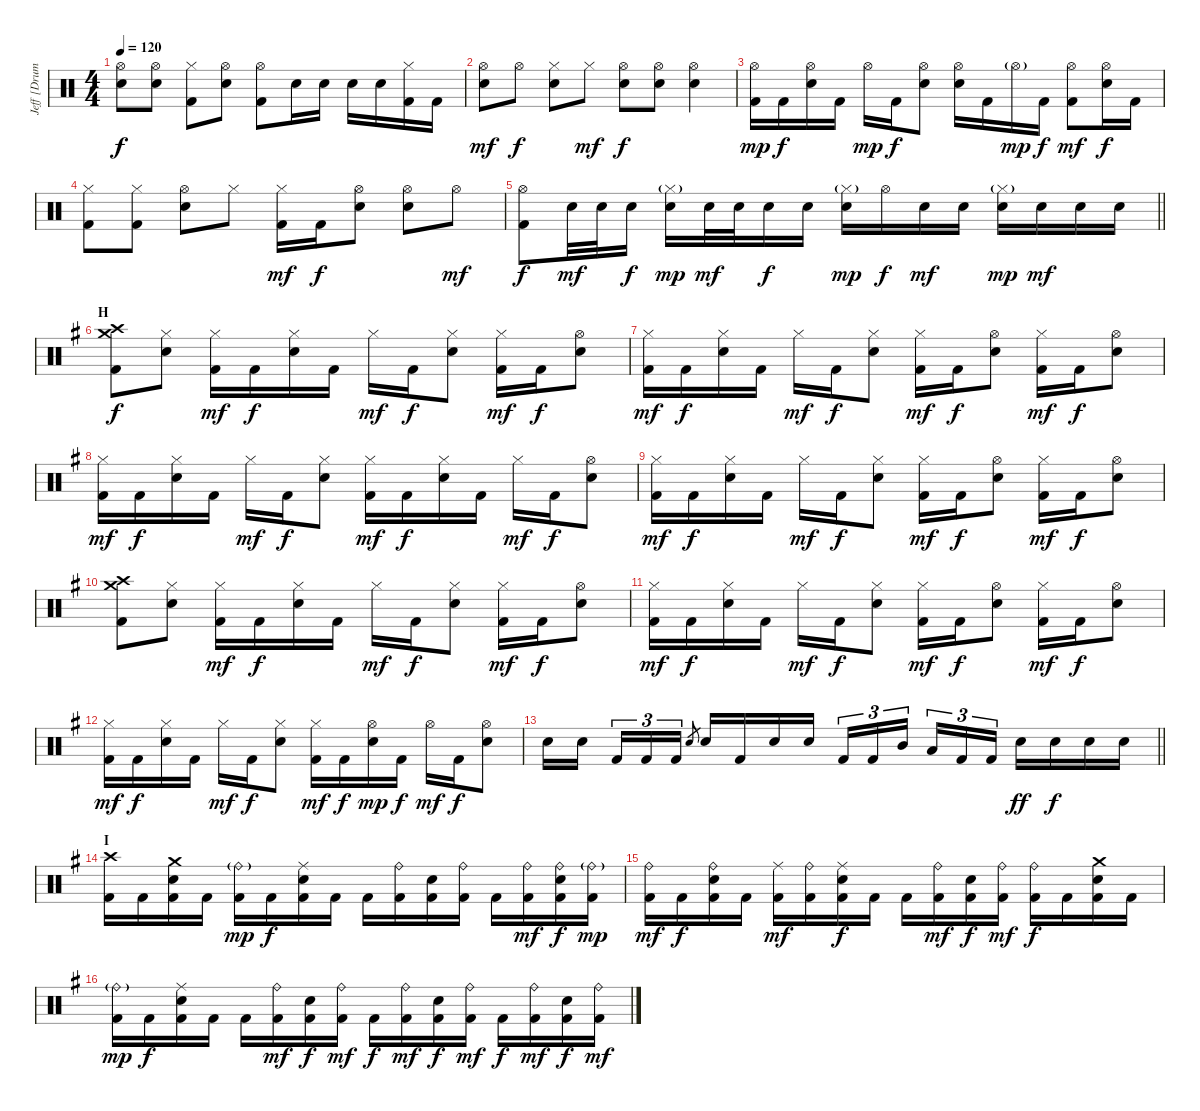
\track ("Jeff [Drums]" "Jeff [Drum") {instrument percussion}
\staff {score}
\articulation defaults
\ts (4 4)
\tempo 120
\clef neutral
\ks c
("Hi-Hat (open)" "Electric Snare (hit)").8{dy f} ("Hi-Hat (open)" "Electric Snare (hit)").8 ("Hi-Hat (closed)" "Kick (hit) 2").8 ("Hi-Hat (open)" "Electric Snare (hit)").8 ("Hi-Hat (open)" "Kick (hit) 2").8 "Electric Snare (hit)".16 "Electric Snare (hit)".16 "Electric Snare (hit)".16 "Electric Snare (hit)".16 ("Hi-Hat (closed)" "Kick (hit) 2").16 "Kick (hit) 2".16 |
("Hi-Hat (open)" "Electric Snare (hit)").8{dy mf} "Hi-Hat (open)".8{dy f} ("Hi-Hat (closed)" "Electric Snare (hit)").8 "Hi-Hat (closed)".8{dy mf} ("Hi-Hat (open)" "Electric Snare (hit)").8{dy f} ("Hi-Hat (open)" "Electric Snare (hit)").8 ("Hi-Hat (open)" "Electric Snare (hit)").4 |
("Hi-Hat (open)" "Kick (hit) 2").16{dy mp} "Kick (hit) 2".16{dy f} ("Hi-Hat (open)" "Electric Snare (hit)").16 "Kick (hit) 2".16 "Hi-Hat (open)".16{dy mp} "Kick (hit) 2".16{dy f} ("Hi-Hat (open)" "Electric Snare (hit)").8 ("Hi-Hat (open)" "Electric Snare (hit)").16 "Kick (hit) 2".16 "Hi-Hat (open)"{g}.16{dy mp} "Kick (hit) 2".16{dy f} ("Hi-Hat (open)" "Kick (hit) 2").8{dy mf} ("Hi-Hat (open)" "Electric Snare (hit)").16{dy f} "Kick (hit) 2".16 |
("Hi-Hat (closed)" "Kick (hit) 2").8 ("Hi-Hat (closed)" "Kick (hit) 2").8 ("Hi-Hat (open)" "Electric Snare (hit)").8 "Hi-Hat (closed)".8 ("Hi-Hat (closed)" "Kick (hit) 2").16{dy mf} "Kick (hit) 2".16{dy f} ("Hi-Hat (open)" "Electric Snare (hit)").8 ("Hi-Hat (open)" "Electric Snare (hit)").8 "Hi-Hat (open)".8{dy mf} |
\barLineRight lightlight
("Hi-Hat (open)" "Kick (hit) 2").8{dy f} "Electric Snare (hit)".32{dy mf} "Electric Snare (hit)".32 "Electric Snare (hit)".16{dy f} ("Electric Snare (hit)" "Hi-Hat (closed)"{g}).16{dy mp} "Electric Snare (hit)".32{dy mf} "Electric Snare (hit)".32 "Electric Snare (hit)".16{dy f} "Electric Snare (hit)".16 ("Electric Snare (hit)" "Hi-Hat (closed)"{g}).16{dy mp} "Hi-Hat (open)".16{dy f} "Electric Snare (hit)".16{dy mf} "Electric Snare (hit)".16 ("Electric Snare (hit)" "Hi-Hat (closed)"{g}).16{dy mp} "Electric Snare (hit)".16{dy mf} "Electric Snare (hit)".16 "Electric Snare (hit)".16 |
\section ("" "H")
\ks g
("Crash high (hit)" "Crash medium (hit)" "Kick (hit) 2").8{dy f} ("Hi-Hat (closed)" "Electric Snare (hit)").8 ("Hi-Hat (closed)" "Kick (hit) 2").16{dy mf} "Kick (hit) 2".16{dy f} ("Hi-Hat (closed)" "Electric Snare (hit)").16 "Kick (hit) 2".16 "Hi-Hat (closed)".16{dy mf} "Kick (hit) 2".16{dy f} ("Hi-Hat (closed)" "Electric Snare (hit)").8 ("Hi-Hat (closed)" "Kick (hit) 2").16{dy mf} "Kick (hit) 2".16{dy f} ("Hi-Hat (open)" "Electric Snare (hit)").8 |
("Hi-Hat (closed)" "Kick (hit) 2").16{dy mf} "Kick (hit) 2".16{dy f} ("Hi-Hat (closed)" "Electric Snare (hit)").16 "Kick (hit) 2".16 "Hi-Hat (closed)".16{dy mf} "Kick (hit) 2".16{dy f} ("Hi-Hat (closed)" "Electric Snare (hit)").8 ("Hi-Hat (closed)" "Kick (hit) 2").16{dy mf} "Kick (hit) 2".16{dy f} ("Hi-Hat (open)" "Electric Snare (hit)").8 ("Hi-Hat (closed)" "Kick (hit) 2").16{dy mf} "Kick (hit) 2".16{dy f} ("Hi-Hat (open)" "Electric Snare (hit)").8 |
("Hi-Hat (closed)" "Kick (hit) 2").16{dy mf} "Kick (hit) 2".16{dy f} ("Hi-Hat (closed)" "Electric Snare (hit)").16 "Kick (hit) 2".16 "Hi-Hat (closed)".16{dy mf} "Kick (hit) 2".16{dy f} ("Hi-Hat (closed)" "Electric Snare (hit)").8 ("Hi-Hat (closed)" "Kick (hit) 2").16{dy mf} "Kick (hit) 2".16{dy f} ("Hi-Hat (closed)" "Electric Snare (hit)").16 "Kick (hit) 2".16 "Hi-Hat (closed)".16{dy mf} "Kick (hit) 2".16{dy f} ("Hi-Hat (open)" "Electric Snare (hit)").8 |
("Hi-Hat (closed)" "Kick (hit) 2").16{dy mf} "Kick (hit) 2".16{dy f} ("Hi-Hat (closed)" "Electric Snare (hit)").16 "Kick (hit) 2".16 "Hi-Hat (closed)".16{dy mf} "Kick (hit) 2".16{dy f} ("Hi-Hat (closed)" "Electric Snare (hit)").8 ("Hi-Hat (closed)" "Kick (hit) 2").16{dy mf} "Kick (hit) 2".16{dy f} ("Hi-Hat (open)" "Electric Snare (hit)").8 ("Hi-Hat (closed)" "Kick (hit) 2").16{dy mf} "Kick (hit) 2".16{dy f} ("Hi-Hat (open)" "Electric Snare (hit)").8 |
("Crash high (hit)" "Crash medium (hit)" "Kick (hit) 2").8 ("Hi-Hat (closed)" "Electric Snare (hit)").8 ("Hi-Hat (closed)" "Kick (hit) 2").16{dy mf} "Kick (hit) 2".16{dy f} ("Hi-Hat (closed)" "Electric Snare (hit)").16 "Kick (hit) 2".16 "Hi-Hat (closed)".16{dy mf} "Kick (hit) 2".16{dy f} ("Hi-Hat (closed)" "Electric Snare (hit)").8 ("Hi-Hat (closed)" "Kick (hit) 2").16{dy mf} "Kick (hit) 2".16{dy f} ("Hi-Hat (open)" "Electric Snare (hit)").8 |
("Hi-Hat (closed)" "Kick (hit) 2").16{dy mf} "Kick (hit) 2".16{dy f} ("Hi-Hat (closed)" "Electric Snare (hit)").16 "Kick (hit) 2".16 "Hi-Hat (closed)".16{dy mf} "Kick (hit) 2".16{dy f} ("Hi-Hat (closed)" "Electric Snare (hit)").8 ("Hi-Hat (closed)" "Kick (hit) 2").16{dy mf} "Kick (hit) 2".16{dy f} ("Hi-Hat (open)" "Electric Snare (hit)").8 ("Hi-Hat (closed)" "Kick (hit) 2").16{dy mf} "Kick (hit) 2".16{dy f} ("Hi-Hat (open)" "Electric Snare (hit)").8 |
("Hi-Hat (closed)" "Kick (hit) 2").16{dy mf} "Kick (hit) 2".16{dy f} ("Hi-Hat (closed)" "Electric Snare (hit)").16 "Kick (hit) 2".16 "Hi-Hat (closed)".16{dy mf} "Kick (hit) 2".16{dy f} ("Hi-Hat (closed)" "Electric Snare (hit)").8 ("Hi-Hat (closed)" "Kick (hit) 2").16{dy mf} "Kick (hit) 2".16{dy f} ("Hi-Hat (open)" "Electric Snare (hit)").16{dy mp} "Kick (hit) 2".16{dy f} "Hi-Hat (open)".16{dy mf} "Kick (hit) 2".16{dy f} ("Hi-Hat (open)" "Electric Snare (hit)").8 |
\barLineRight lightlight "Electric Snare (hit)".16 "Electric Snare (hit)".16{beam splitsecondary} "Kick (hit) 2".16{tu (3 2)} "Kick (hit) 2".16{tu (3 2)} "Kick (hit) 2".16{tu (3 2)} "Electric Snare (hit)".8{gr} "Electric Snare (hit)".16 "Kick (hit) 2".16 "Electric Snare (hit)".16 "Electric Snare (hit)".16 "Kick (hit) 2".16{tu (3 2)} "Kick (hit) 2".16{tu (3 2)} "Mid Tom (hit)".16{tu (3 2) beam splitsecondary} "Low Tom (hit)".16{tu (3 2)} "Kick (hit) 2".16{tu (3 2)} "Kick (hit) 2".16{tu (3 2)} "Electric Snare (hit)".16{dy ff} "Electric Snare (hit)".16{dy f} "Electric Snare (hit)".16 "Electric Snare (hit)".16
|
\section ("" "I")
("Crash high (hit)" "Kick (hit) 2").16 "Kick (hit) 2".16 ("Crash medium (hit)" "Electric Snare (hit)" "Kick (hit) 2").16 "Kick (hit) 2".16 ("Ride (bell)"{g} "Kick (hit) 2").16{dy mp} "Kick (hit) 2".16{dy f} ("Ride (middle)" "Electric Snare (hit)" "Kick (hit) 2").16 "Kick (hit) 2".16 "Kick (hit) 2".16 ("Ride (bell)" "Kick (hit) 2").16 ("Electric Snare (hit)" "Kick (hit) 2").16 ("Ride (bell)" "Kick (hit) 2").16 "Kick (hit) 2".16 ("Ride (bell)" "Kick (hit) 2").16{dy mf} ("Ride (bell)" "Electric Snare (hit)" "Kick (hit) 2").16{dy f} ("Ride (bell)"{g} "Kick (hit) 2").16{dy mp} |
("Ride (bell)" "Kick (hit) 2").16{dy mf} "Kick (hit) 2".16{dy f} ("Ride (bell)" "Electric Snare (hit)" "Kick (hit) 2").16 "Kick (hit) 2".16 ("Ride (middle)" "Kick (hit) 2").16{dy mf} ("Ride (bell)" "Kick (hit) 2").16 ("Ride (middle)" "Electric Snare (hit)" "Kick (hit) 2").16{dy f} "Kick (hit) 2".16 "Kick (hit) 2".16 ("Ride (bell)" "Kick (hit) 2").16{dy mf} ("Electric Snare (hit)" "Kick (hit) 2").16{dy f} ("Ride (bell)" "Kick (hit) 2").16{dy mf} ("Ride (bell)" "Kick (hit) 2").16{dy f} "Kick (hit) 2".16 ("Crash medium (hit)" "Electric Snare (hit)" "Kick (hit) 2").16 "Kick (hit) 2".16 |
("Ride (bell)"{g} "Kick (hit) 2").16{dy mp} "Kick (hit) 2".16{dy f} ("Ride (middle)" "Electric Snare (hit)" "Kick (hit) 2").16 "Kick (hit) 2".16 "Kick (hit) 2".16 ("Ride (bell)" "Kick (hit) 2").16{dy mf} ("Electric Snare (hit)" "Kick (hit) 2").16{dy f} ("Ride (bell)" "Kick (hit) 2").16{dy mf} "Kick (hit) 2".16{dy f} ("Ride (bell)" "Kick (hit) 2").16{dy mf} ("Electric Snare (hit)" "Kick (hit) 2").16{dy f} ("Ride (bell)" "Kick (hit) 2").16{dy mf} "Kick (hit) 2".16{dy f} ("Ride (bell)" "Kick (hit) 2").16{dy mf} ("Electric Snare (hit)" "Kick (hit) 2").16{dy f} ("Ride (bell)" "Kick (hit) 2").16{dy mf}
